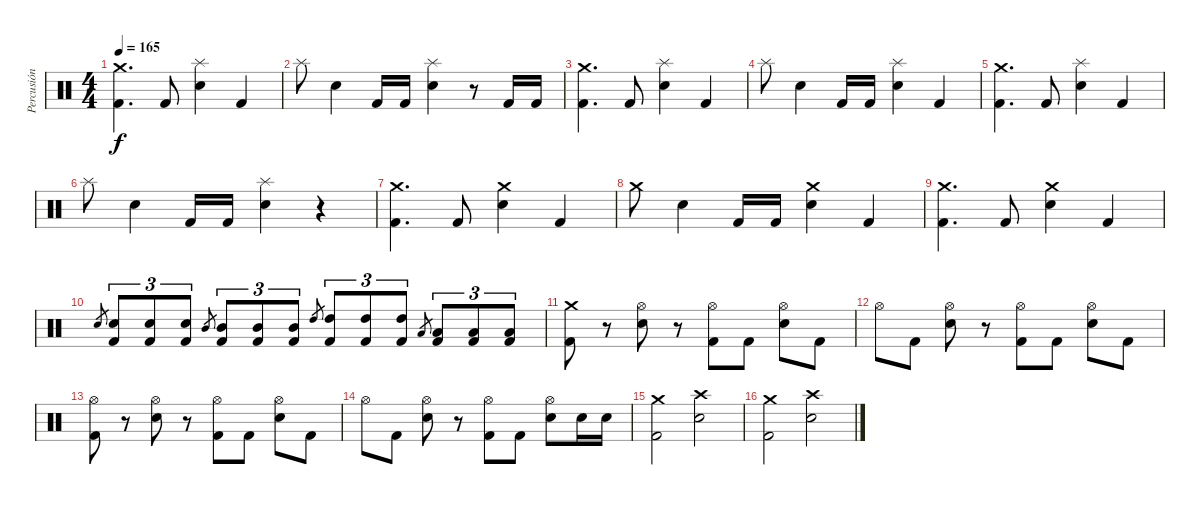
\track ("Percusión" "Percusión") {instrument percussion}
\staff {score}
\articulation defaults
\ts (4 4)
\tempo 165
\clef neutral
\ks c
("Crash medium (hit)" "Kick (hit) 2").4{d dy f} "Kick (hit) 2".8 ("Splash (hit)" "Electric Snare (hit)").4 "Kick (hit) 2".4 |
"Splash (hit)".8 "Electric Snare (hit)".4 "Kick (hit) 2".16 "Kick (hit) 2".16 ("Splash (hit)" "Electric Snare (hit)").4 r.8 "Kick (hit) 2".16 "Kick (hit) 2".16 |
("Crash medium (hit)" "Kick (hit) 2").4{d} "Kick (hit) 2".8 ("Splash (hit)" "Electric Snare (hit)").4 "Kick (hit) 2".4 |
"Splash (hit)".8 "Electric Snare (hit)".4 "Kick (hit) 2".16 "Kick (hit) 2".16 ("Splash (hit)" "Electric Snare (hit)").4 "Kick (hit) 2".4 |
("Crash medium (hit)" "Kick (hit) 2").4{d} "Kick (hit) 2".8 ("Splash (hit)" "Electric Snare (hit)").4 "Kick (hit) 2".4 |
"Splash (hit)".8 "Electric Snare (hit)".4 "Kick (hit) 2".16 "Kick (hit) 2".16 ("Splash (hit)" "Electric Snare (hit)").4 r.4 |
("Crash medium (hit)" "Kick (hit) 2").4{d} "Kick (hit) 2".8 ("Crash medium (hit)" "Electric Snare (hit)").4 "Kick (hit) 2".4 |
"Crash medium (hit)".8 "Electric Snare (hit)".4 "Kick (hit) 2".16 "Kick (hit) 2".16 ("Crash medium (hit)" "Electric Snare (hit)").4 "Kick (hit) 2".4 |
("Crash medium (hit)" "Kick (hit) 2").4{d} "Kick (hit) 2".8 ("Crash medium (hit)" "Electric Snare (hit)").4 "Kick (hit) 2".4 |
"Electric Snare (hit)".8{gr} ("Electric Snare (hit)" "Kick (hit) 2").8{tu (3 2)} ("Electric Snare (hit)" "Kick (hit) 2").8{tu (3 2)} ("Electric Snare (hit)" "Kick (hit) 2").8{tu (3 2)} "Mid Tom (hit)".8{gr} ("Mid Tom (hit)" "Kick (hit) 2").8{tu (3 2)} ("Mid Tom (hit)" "Kick (hit) 2").8{tu (3 2)} ("Mid Tom (hit)" "Kick (hit) 2").8{tu (3 2)} "High Tom (hit)".8{gr} ("High Tom (hit)" "Kick (hit) 2").8{tu (3 2)} ("High Tom (hit)" "Kick (hit) 2").8{tu (3 2)} ("High Tom (hit)" "Kick (hit) 2").8{tu (3 2)} "Low Tom (hit)".8{gr} ("Low Tom (hit)" "Kick (hit) 2").8{tu (3 2)} ("Low Tom (hit)" "Kick (hit) 2").8{tu (3 2)} ("Low Tom (hit)" "Kick (hit) 2").8{tu (3 2)} |
("Crash medium (hit)" "Kick (hit) 2").8 r.8 ("Hi-Hat (open)" "Electric Snare (hit)").8 r.8 ("Hi-Hat (open)" "Kick (hit) 2").8 "Kick (hit) 2".8 ("Hi-Hat (open)" "Electric Snare (hit)").8 "Kick (hit) 2".8 |
"Hi-Hat (open)".8 "Kick (hit) 2".8 ("Hi-Hat (open)" "Electric Snare (hit)").8 r.8 ("Hi-Hat (open)" "Kick (hit) 2").8 "Kick (hit) 2".8 ("Hi-Hat (open)" "Electric Snare (hit)").8 "Kick (hit) 2".8 |
("Hi-Hat (open)" "Kick (hit) 2").8 r.8 ("Hi-Hat (open)" "Electric Snare (hit)").8 r.8 ("Hi-Hat (open)" "Kick (hit) 2").8 "Kick (hit) 2".8 ("Hi-Hat (open)" "Electric Snare (hit)").8 "Kick (hit) 2".8 |
"Hi-Hat (open)".8 "Kick (hit) 2".8 ("Hi-Hat (open)" "Electric Snare (hit)").8 r.8 ("Hi-Hat (open)" "Kick (hit) 2").8 "Kick (hit) 2".8 ("Hi-Hat (open)" "Electric Snare (hit)").8 "Electric Snare (hit)".16 "Electric Snare (hit)".16 |
("Crash medium (hit)" "Kick (hit) 2").2 ("Crash high (hit)" "Electric Snare (hit)").2 |
("Crash medium (hit)" "Kick (hit) 2").2 ("Crash high (hit)" "Electric Snare (hit)").2
